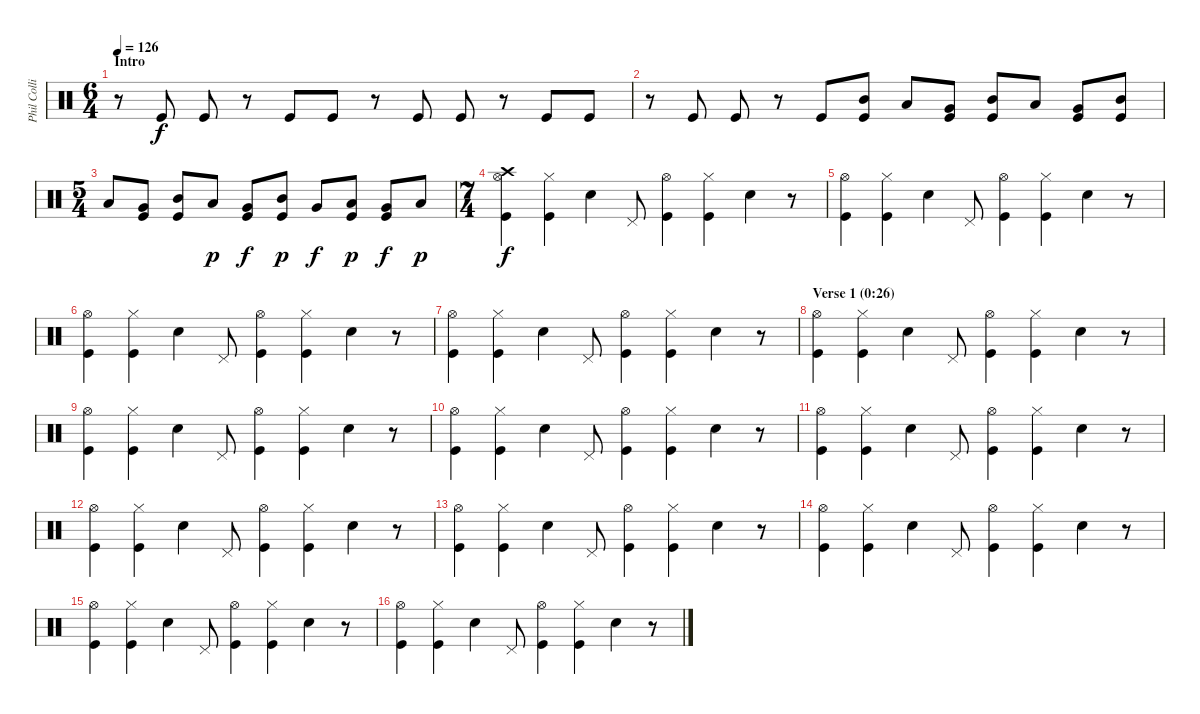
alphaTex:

\track ("Phil Collins (drums)" "Phil Colli") {instrument percussion}
\staff {score}
\articulation defaults
\ts (6 4)
\section ("" "Intro")
\tempo 126
\clef neutral
\ks c
r.8{dy f volume 0} "Kick (hit)".8{volume 11} "Kick (hit)".8 r.8 "Kick (hit)".8 "Kick (hit)".8 r.8 "Kick (hit)".8 "Kick (hit)".8 r.8 "Kick (hit)".8 "Kick (hit)".8 |
r.8 "Kick (hit)".8 "Kick (hit)".8 r.8 "Kick (hit)".8 ("Mid Tom (hit)" "Kick (hit)").8 "Low Tom (hit)".8 ("Very Low Tom (hit)" "Kick (hit)").8 ("Mid Tom (hit)" "Kick (hit)").8 "Low Tom (hit)".8 ("Very Low Tom (hit)" "Kick (hit)").8 ("Mid Tom (hit)" "Kick (hit)").8 |
\ts (5 4)
"Low Tom (hit)".8 ("Very Low Tom (hit)" "Kick (hit)").8 ("Mid Tom (hit)" "Kick (hit)").8 "Low Tom (hit)".8{dy p} ("Very Low Tom (hit)" "Kick (hit)").8{dy f} ("Mid Tom (hit)" "Kick (hit)").8{dy p} "Very Low Tom (hit)".8{dy f} ("Low Tom (hit)" "Kick (hit)").8{dy p} ("Very Low Tom (hit)" "Kick (hit)").8{dy f} "Low Floor Tom (hit)".8{dy p} |
\ts (7 4)
("Crash high (hit)" "Hi-Hat (open)" "Kick (hit)").4{dy f} ("Hi-Hat (closed)" "Kick (hit)").4 "Snare (hit) 2".4 "Pedal Hi-Hat (hit)".8 ("Hi-Hat (open)" "Kick (hit)").4 ("Hi-Hat (closed)" "Kick (hit)").4 "Snare (hit) 2".4 r.8 |
("Hi-Hat (open)" "Kick (hit)").4 ("Hi-Hat (closed)" "Kick (hit)").4 "Snare (hit) 2".4 "Pedal Hi-Hat (hit)".8 ("Hi-Hat (open)" "Kick (hit)").4 ("Hi-Hat (closed)" "Kick (hit)").4 "Snare (hit) 2".4 r.8 |
("Hi-Hat (open)" "Kick (hit)").4 ("Hi-Hat (closed)" "Kick (hit)").4 "Snare (hit) 2".4 "Pedal Hi-Hat (hit)".8 ("Hi-Hat (open)" "Kick (hit)").4 ("Hi-Hat (closed)" "Kick (hit)").4 "Snare (hit) 2".4 r.8 |
("Hi-Hat (open)" "Kick (hit)").4 ("Hi-Hat (closed)" "Kick (hit)").4 "Snare (hit) 2".4 "Pedal Hi-Hat (hit)".8 ("Hi-Hat (open)" "Kick (hit)").4 ("Hi-Hat (closed)" "Kick (hit)").4 "Snare (hit) 2".4 r.8 |
\section ("" "Verse 1 (0:26)")
("Hi-Hat (open)" "Kick (hit)").4 ("Hi-Hat (closed)" "Kick (hit)").4 "Snare (hit) 2".4 "Pedal Hi-Hat (hit)".8 ("Hi-Hat (open)" "Kick (hit)").4 ("Hi-Hat (closed)" "Kick (hit)").4 "Snare (hit) 2".4 r.8 |
("Hi-Hat (open)" "Kick (hit)").4 ("Hi-Hat (closed)" "Kick (hit)").4 "Snare (hit) 2".4 "Pedal Hi-Hat (hit)".8 ("Hi-Hat (open)" "Kick (hit)").4 ("Hi-Hat (closed)" "Kick (hit)").4 "Snare (hit) 2".4 r.8 |
("Hi-Hat (open)" "Kick (hit)").4 ("Hi-Hat (closed)" "Kick (hit)").4 "Snare (hit) 2".4 "Pedal Hi-Hat (hit)".8 ("Hi-Hat (open)" "Kick (hit)").4 ("Hi-Hat (closed)" "Kick (hit)").4 "Snare (hit) 2".4 r.8 |
("Hi-Hat (open)" "Kick (hit)").4 ("Hi-Hat (closed)" "Kick (hit)").4 "Snare (hit) 2".4 "Pedal Hi-Hat (hit)".8 ("Hi-Hat (open)" "Kick (hit)").4 ("Hi-Hat (closed)" "Kick (hit)").4 "Snare (hit) 2".4 r.8 |
("Hi-Hat (open)" "Kick (hit)").4 ("Hi-Hat (closed)" "Kick (hit)").4 "Snare (hit) 2".4 "Pedal Hi-Hat (hit)".8 ("Hi-Hat (open)" "Kick (hit)").4 ("Hi-Hat (closed)" "Kick (hit)").4 "Snare (hit) 2".4 r.8 |
("Hi-Hat (open)" "Kick (hit)").4 ("Hi-Hat (closed)" "Kick (hit)").4 "Snare (hit) 2".4 "Pedal Hi-Hat (hit)".8 ("Hi-Hat (open)" "Kick (hit)").4 ("Hi-Hat (closed)" "Kick (hit)").4 "Snare (hit) 2".4 r.8 |
("Hi-Hat (open)" "Kick (hit)").4 ("Hi-Hat (closed)" "Kick (hit)").4 "Snare (hit) 2".4 "Pedal Hi-Hat (hit)".8 ("Hi-Hat (open)" "Kick (hit)").4 ("Hi-Hat (closed)" "Kick (hit)").4 "Snare (hit) 2".4 r.8 |
("Hi-Hat (open)" "Kick (hit)").4 ("Hi-Hat (closed)" "Kick (hit)").4 "Snare (hit) 2".4 "Pedal Hi-Hat (hit)".8 ("Hi-Hat (open)" "Kick (hit)").4 ("Hi-Hat (closed)" "Kick (hit)").4 "Snare (hit) 2".4 r.8 |
("Hi-Hat (open)" "Kick (hit)").4 ("Hi-Hat (closed)" "Kick (hit)").4 "Snare (hit) 2".4 "Pedal Hi-Hat (hit)".8 ("Hi-Hat (open)" "Kick (hit)").4 ("Hi-Hat (closed)" "Kick (hit)").4 "Snare (hit) 2".4 r.8
